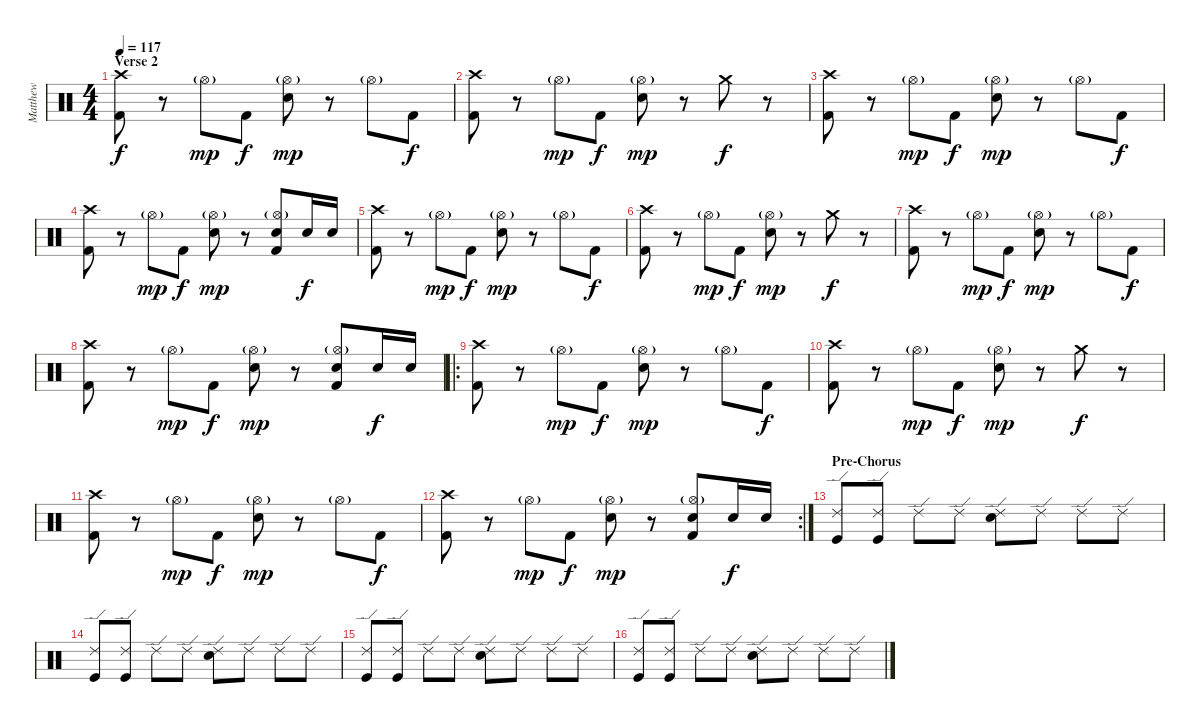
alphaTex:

\track ("Matthew" "Matthew") {instrument percussion}
\staff {score}
\articulation defaults
\ts (4 4)
\section ("" "Verse 2")
\tempo 117
\clef neutral
\ks c
("Crash high (hit)" "Kick (hit) 2").8{dy f} r.8 "Hi-Hat (open)"{g}.8{dy mp} "Kick (hit) 2".8{dy f} ("Hi-Hat (open)"{g} "Electric Snare (hit)").8{dy mp} r.8 "Hi-Hat (open)"{g}.8 "Kick (hit) 2".8{dy f} |
("Crash high (hit)" "Kick (hit) 2").8 r.8 "Hi-Hat (open)"{g}.8{dy mp} "Kick (hit) 2".8{dy f} ("Hi-Hat (open)"{g} "Electric Snare (hit)").8{dy mp} r.8 "Crash medium (hit)".8{dy f} r.8 |
("Crash high (hit)" "Kick (hit) 2").8 r.8 "Hi-Hat (open)"{g}.8{dy mp} "Kick (hit) 2".8{dy f} ("Hi-Hat (open)"{g} "Electric Snare (hit)").8{dy mp} r.8 "Hi-Hat (open)"{g}.8 "Kick (hit) 2".8{dy f} |
("Crash high (hit)" "Kick (hit) 2").8 r.8 "Hi-Hat (open)"{g}.8{dy mp} "Kick (hit) 2".8{dy f} ("Hi-Hat (open)"{g} "Electric Snare (hit)").8{dy mp} r.8 ("Hi-Hat (open)"{g} "Electric Snare (hit)" "Kick (hit) 2").8 "Electric Snare (hit)".16{dy f} "Electric Snare (hit)".16 |
("Crash high (hit)" "Kick (hit) 2").8 r.8 "Hi-Hat (open)"{g}.8{dy mp} "Kick (hit) 2".8{dy f} ("Hi-Hat (open)"{g} "Electric Snare (hit)").8{dy mp} r.8 "Hi-Hat (open)"{g}.8 "Kick (hit) 2".8{dy f} |
("Crash high (hit)" "Kick (hit) 2").8 r.8 "Hi-Hat (open)"{g}.8{dy mp} "Kick (hit) 2".8{dy f} ("Hi-Hat (open)"{g} "Electric Snare (hit)").8{dy mp} r.8 "Crash medium (hit)".8{dy f} r.8 |
("Crash high (hit)" "Kick (hit) 2").8 r.8 "Hi-Hat (open)"{g}.8{dy mp} "Kick (hit) 2".8{dy f} ("Hi-Hat (open)"{g} "Electric Snare (hit)").8{dy mp} r.8 "Hi-Hat (open)"{g}.8 "Kick (hit) 2".8{dy f} |
("Crash high (hit)" "Kick (hit) 2").8 r.8 "Hi-Hat (open)"{g}.8{dy mp} "Kick (hit) 2".8{dy f} ("Hi-Hat (open)"{g} "Electric Snare (hit)").8{dy mp} r.8 ("Hi-Hat (open)"{g} "Electric Snare (hit)" "Kick (hit) 2").8 "Electric Snare (hit)".16{dy f} "Electric Snare (hit)".16 |
\ro
("Crash high (hit)" "Kick (hit) 2").8 r.8 "Hi-Hat (open)"{g}.8{dy mp} "Kick (hit) 2".8{dy f} ("Hi-Hat (open)"{g} "Electric Snare (hit)").8{dy mp} r.8 "Hi-Hat (open)"{g}.8 "Kick (hit) 2".8{dy f} |
("Crash high (hit)" "Kick (hit) 2").8 r.8 "Hi-Hat (open)"{g}.8{dy mp} "Kick (hit) 2".8{dy f} ("Hi-Hat (open)"{g} "Electric Snare (hit)").8{dy mp} r.8 "Crash medium (hit)".8{dy f} r.8 |
("Crash high (hit)" "Kick (hit) 2").8 r.8 "Hi-Hat (open)"{g}.8{dy mp} "Kick (hit) 2".8{dy f} ("Hi-Hat (open)"{g} "Electric Snare (hit)").8{dy mp} r.8 "Hi-Hat (open)"{g}.8 "Kick (hit) 2".8{dy f} |
\rc 2
("Crash high (hit)" "Kick (hit) 2").8 r.8 "Hi-Hat (open)"{g}.8{dy mp} "Kick (hit) 2".8{dy f} ("Hi-Hat (open)"{g} "Electric Snare (hit)").8{dy mp} r.8 ("Hi-Hat (open)"{g} "Electric Snare (hit)" "Kick (hit) 2").8 "Electric Snare (hit)".16{dy f} "Electric Snare (hit)".16 |
\section ("" "Pre-Chorus")
("Ride (edge) 2" "Kick (hit)").8 ("Ride (edge) 2" "Kick (hit)").8 "Ride (edge) 2".8 "Ride (edge) 2".8 ("Ride (edge) 2" "Electric Snare (hit)").8 "Ride (edge) 2".8 "Ride (edge) 2".8 "Ride (edge) 2".8 |
("Ride (edge) 2" "Kick (hit)").8 ("Ride (edge) 2" "Kick (hit)").8 "Ride (edge) 2".8 "Ride (edge) 2".8 ("Ride (edge) 2" "Electric Snare (hit)").8 "Ride (edge) 2".8 "Ride (edge) 2".8 "Ride (edge) 2".8 |
("Ride (edge) 2" "Kick (hit)").8 ("Ride (edge) 2" "Kick (hit)").8 "Ride (edge) 2".8 "Ride (edge) 2".8 ("Ride (edge) 2" "Electric Snare (hit)").8 "Ride (edge) 2".8 "Ride (edge) 2".8 "Ride (edge) 2".8 |
("Ride (edge) 2" "Kick (hit)").8 ("Ride (edge) 2" "Kick (hit)").8 "Ride (edge) 2".8 "Ride (edge) 2".8 ("Ride (edge) 2" "Electric Snare (hit)").8 "Ride (edge) 2".8 "Ride (edge) 2".8 "Ride (edge) 2".8
